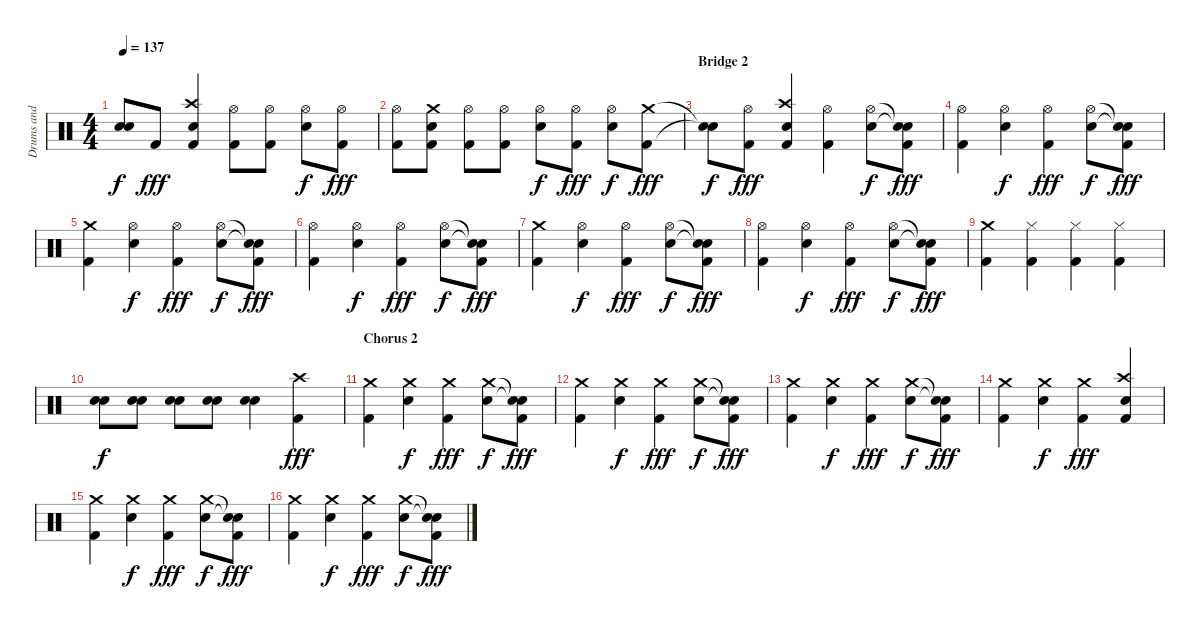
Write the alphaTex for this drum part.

\track ("Drums and Percussion" "Drums and ") {instrument percussion}
\staff {score}
\articulation defaults
\ts (4 4)
\tempo 137
\clef neutral
\ks c
("Snare (hit)"{t} "Snare (hit)"{t}).8{dy f} "Kick (hit) 2".8{dy fff} ("Crash high (hit)" "Electric Snare (hit)" "Kick (hit) 2").4 ("Hi-Hat (open)" "Kick (hit) 2").8 ("Hi-Hat (open)" "Kick (hit) 2").8 ("Hi-Hat (open)" "Electric Snare (hit)").8{dy f} ("Hi-Hat (open)" "Kick (hit) 2").8{dy fff} |
("Hi-Hat (open)" "Kick (hit) 2").8 ("Crash medium (hit)" "Electric Snare (hit)" "Kick (hit) 2").8 ("Hi-Hat (open)" "Kick (hit) 2").8 ("Hi-Hat (open)" "Kick (hit) 2").8 ("Hi-Hat (open)" "Electric Snare (hit)").8{dy f} ("Hi-Hat (open)" "Kick (hit) 2").8{dy fff} ("Hi-Hat (open)" "Electric Snare (hit)").8{dy f} ("Crash medium (hit)" "Kick (hit) 2").8{dy fff} |
\section ("" "Bridge 2")
("Snare (hit)"{t} "Snare (hit)"{t}).8{dy f} ("Hi-Hat (open)" "Kick (hit) 2").8{dy fff} ("Crash high (hit)" "Electric Snare (hit)" "Kick (hit) 2").4 ("Hi-Hat (open)" "Kick (hit) 2").4 ("Hi-Hat (open)" "Electric Snare (hit)").8{dy f} ("Snare (hit)"{t} "Snare (hit)"{t} "Kick (hit) 2").8{dy fff} |
("Hi-Hat (open)" "Kick (hit) 2").4 ("Hi-Hat (open)" "Electric Snare (hit)").4{dy f} ("Hi-Hat (open)" "Kick (hit) 2").4{dy fff} ("Hi-Hat (open)" "Electric Snare (hit)").8{dy f} ("Snare (hit)"{t} "Snare (hit)"{t} "Kick (hit) 2").8{dy fff} |
("Crash medium (hit)" "Kick (hit) 2").4 ("Hi-Hat (open)" "Electric Snare (hit)").4{dy f} ("Hi-Hat (open)" "Kick (hit) 2").4{dy fff} ("Hi-Hat (open)" "Electric Snare (hit)").8{dy f} ("Snare (hit)"{t} "Snare (hit)"{t} "Kick (hit) 2").8{dy fff} |
("Hi-Hat (open)" "Kick (hit) 2").4 ("Hi-Hat (open)" "Electric Snare (hit)").4{dy f} ("Hi-Hat (open)" "Kick (hit) 2").4{dy fff} ("Hi-Hat (open)" "Electric Snare (hit)").8{dy f} ("Snare (hit)"{t} "Snare (hit)"{t} "Kick (hit) 2").8{dy fff} |
("Crash medium (hit)" "Kick (hit) 2").4 ("Hi-Hat (open)" "Electric Snare (hit)").4{dy f} ("Hi-Hat (open)" "Kick (hit) 2").4{dy fff} ("Hi-Hat (open)" "Electric Snare (hit)").8{dy f} ("Snare (hit)"{t} "Snare (hit)"{t} "Kick (hit) 2").8{dy fff} |
("Hi-Hat (open)" "Kick (hit) 2").4 ("Hi-Hat (open)" "Electric Snare (hit)").4{dy f} ("Hi-Hat (open)" "Kick (hit) 2").4{dy fff} ("Hi-Hat (open)" "Electric Snare (hit)").8{dy f} ("Snare (hit)"{t} "Snare (hit)"{t} "Kick (hit) 2").8{dy fff} |
("Crash medium (hit)" "Kick (hit) 2").4 ("Hi-Hat (closed)" "Kick (hit) 2").4 ("Hi-Hat (closed)" "Kick (hit) 2").4 ("Hi-Hat (closed)" "Kick (hit) 2").4 |
("Electric Snare (hit)" "Electric Snare (hit)").8{dy f} ("Electric Snare (hit)" "Electric Snare (hit)").8 ("Electric Snare (hit)" "Electric Snare (hit)").8 ("Electric Snare (hit)" "Electric Snare (hit)").8 ("Electric Snare (hit)" "Electric Snare (hit)").4 ("Crash high (hit)" "Kick (hit) 2").4{dy fff} |
\section ("" "Chorus 2")
("Crash medium (hit)" "Kick (hit) 2").4 ("Crash medium (hit)" "Electric Snare (hit)").4{dy f} ("Crash medium (hit)" "Kick (hit) 2").4{dy fff} ("Crash medium (hit)" "Electric Snare (hit)").8{dy f} ("Snare (hit)"{t} "Snare (hit)"{t} "Kick (hit) 2").8{dy fff} |
("Crash medium (hit)" "Kick (hit) 2").4 ("Crash medium (hit)" "Electric Snare (hit)").4{dy f} ("Crash medium (hit)" "Kick (hit) 2").4{dy fff} ("Crash medium (hit)" "Electric Snare (hit)").8{dy f} ("Snare (hit)"{t} "Snare (hit)"{t} "Kick (hit) 2").8{dy fff} |
("Crash medium (hit)" "Kick (hit) 2").4 ("Crash medium (hit)" "Electric Snare (hit)").4{dy f} ("Crash medium (hit)" "Kick (hit) 2").4{dy fff} ("Crash medium (hit)" "Electric Snare (hit)").8{dy f} ("Snare (hit)"{t} "Snare (hit)"{t} "Kick (hit) 2").8{dy fff} |
("Crash medium (hit)" "Kick (hit) 2").4 ("Crash medium (hit)" "Electric Snare (hit)").4{dy f} ("Crash medium (hit)" "Kick (hit) 2").4{dy fff} ("Crash high (hit)" "Electric Snare (hit)" "Kick (hit) 2").4 |
("Crash medium (hit)" "Kick (hit) 2").4 ("Crash medium (hit)" "Electric Snare (hit)").4{dy f} ("Crash medium (hit)" "Kick (hit) 2").4{dy fff} ("Crash medium (hit)" "Electric Snare (hit)").8{dy f} ("Snare (hit)"{t} "Snare (hit)"{t} "Kick (hit) 2").8{dy fff} |
("Crash medium (hit)" "Kick (hit) 2").4 ("Crash medium (hit)" "Electric Snare (hit)").4{dy f} ("Crash medium (hit)" "Kick (hit) 2").4{dy fff} ("Crash medium (hit)" "Electric Snare (hit)").8{dy f} ("Snare (hit)"{t} "Snare (hit)"{t} "Kick (hit) 2").8{dy fff}
